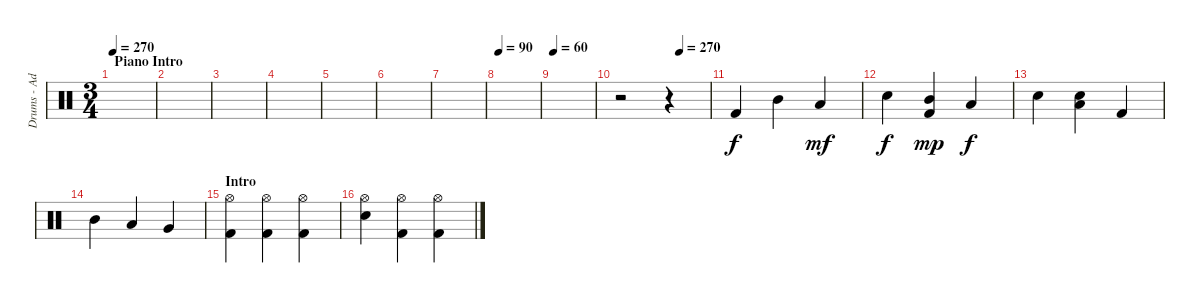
\track ("Drums - Adam" "Drums - Ad") {instrument percussion}
\staff {score}
\articulation defaults
\ts (3 4)
\section ("" "Piano Intro")
\tempo 270
\tempo 112
\tempo 270
\clef neutral
\ks c
|
|
|
|
|
|
|
\tempo 90
|
\tempo 60
|
\tempo (270 0.6666666666666666)
r.2 r.4 |
"Kick (hit) 2".4 "Mid Tom (hit)".4 "Low Tom (hit)".4{dy mf} |
"Electric Snare (hit)".4{dy f} ("Kick (hit) 2" "Mid Tom (hit)").4{dy mp} "Low Tom (hit)".4{dy f} |
"Electric Snare (hit)".4 ("Electric Snare (hit)" "Low Tom (hit)").4 "Kick (hit) 2".4 |
"Mid Tom (hit)".4 "Low Tom (hit)".4 "Very Low Tom (hit)".4 |
\section ("" "Intro")
("Hi-Hat (open)" "Kick (hit) 2").4 ("Hi-Hat (open)" "Kick (hit) 2").4 ("Hi-Hat (open)" "Kick (hit) 2").4 |
("Hi-Hat (open)" "Electric Snare (hit)").4 ("Hi-Hat (open)" "Kick (hit) 2").4 ("Hi-Hat (open)" "Kick (hit) 2").4
